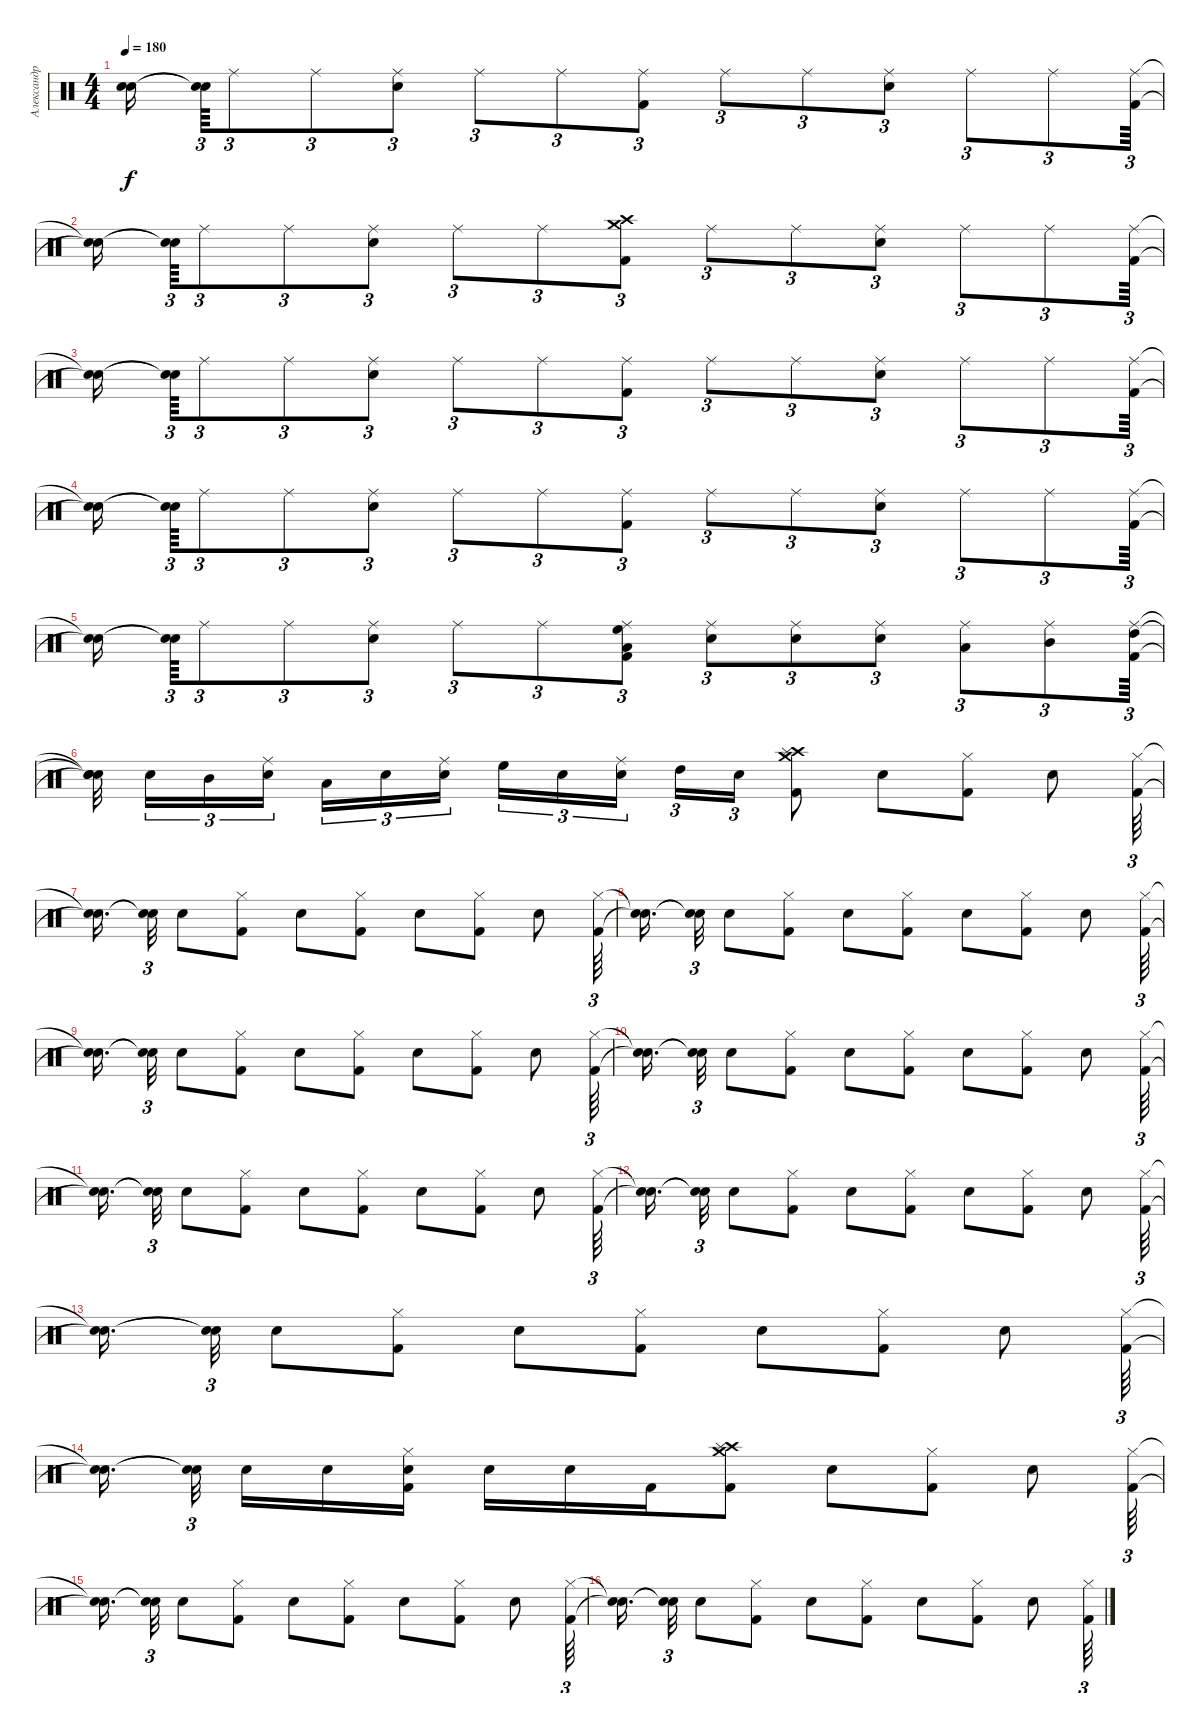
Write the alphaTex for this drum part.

\track ("Александр Карпухин" "Александр ") {instrument percussion}
\staff {score}
\articulation defaults
\ts (4 4)
\tempo 180
\clef neutral
\ks c
("Snare (hit)"{t} "Snare (hit)"{t}).16{dy f beam splitsecondary} ("Snare (hit)"{t} "Snare (hit)"{t}).64{tu (3 2)} "Ride (middle)".8{tu (3 2)} "Ride (middle)".8{tu (3 2)} ("Ride (middle)" "Snare (hit) 2").8{tu (3 2)} "Ride (middle)".8{tu (3 2)} "Ride (middle)".8{tu (3 2)} ("Ride (middle)" "Kick (hit) 2").8{tu (3 2)} "Ride (middle)".8{tu (3 2)} "Ride (middle)".8{tu (3 2)} ("Ride (middle)" "Snare (hit) 2").8{tu (3 2)} "Ride (middle)".8{tu (3 2)} "Ride (middle)".8{tu (3 2)} ("Ride (middle)" "Kick (hit) 2").64{tu (3 2)} |
("Snare (hit)"{t} "Snare (hit)"{t}).16{beam splitsecondary} ("Snare (hit)"{t} "Snare (hit)"{t}).64{tu (3 2)} "Ride (middle)".8{tu (3 2)} "Ride (middle)".8{tu (3 2)} ("Ride (middle)" "Snare (hit) 2").8{tu (3 2)} "Ride (middle)".8{tu (3 2)} "Ride (middle)".8{tu (3 2)} ("Crash high (hit)" "Crash medium (hit)" "Kick (hit) 2").8{tu (3 2)} "Ride (middle)".8{tu (3 2)} "Ride (middle)".8{tu (3 2)} ("Ride (middle)" "Snare (hit) 2").8{tu (3 2)} "Ride (middle)".8{tu (3 2)} "Ride (middle)".8{tu (3 2)} ("Ride (middle)" "Kick (hit) 2").64{tu (3 2)} |
("Snare (hit)"{t} "Snare (hit)"{t}).16{beam splitsecondary} ("Snare (hit)"{t} "Snare (hit)"{t}).64{tu (3 2)} "Ride (middle)".8{tu (3 2)} "Ride (middle)".8{tu (3 2)} ("Ride (middle)" "Snare (hit) 2").8{tu (3 2)} "Ride (middle)".8{tu (3 2)} "Ride (middle)".8{tu (3 2)} ("Ride (middle)" "Kick (hit) 2").8{tu (3 2)} "Ride (middle)".8{tu (3 2)} "Ride (middle)".8{tu (3 2)} ("Ride (middle)" "Snare (hit) 2").8{tu (3 2)} "Ride (middle)".8{tu (3 2)} "Ride (middle)".8{tu (3 2)} ("Ride (middle)" "Kick (hit) 2").64{tu (3 2)} |
("Snare (hit)"{t} "Snare (hit)"{t}).16{beam splitsecondary} ("Snare (hit)"{t} "Snare (hit)"{t}).64{tu (3 2)} "Ride (middle)".8{tu (3 2)} "Ride (middle)".8{tu (3 2)} ("Ride (middle)" "Snare (hit) 2").8{tu (3 2)} "Ride (middle)".8{tu (3 2)} "Ride (middle)".8{tu (3 2)} ("Ride (middle)" "Kick (hit) 2").8{tu (3 2)} "Ride (middle)".8{tu (3 2)} "Ride (middle)".8{tu (3 2)} ("Ride (middle)" "Snare (hit) 2").8{tu (3 2)} "Ride (middle)".8{tu (3 2)} "Ride (middle)".8{tu (3 2)} ("Ride (middle)" "Kick (hit) 2").64{tu (3 2)} |
("Snare (hit)"{t} "Snare (hit)"{t}).16{beam splitsecondary} ("Snare (hit)"{t} "Snare (hit)"{t}).64{tu (3 2)} "Ride (middle)".8{tu (3 2)} "Ride (middle)".8{tu (3 2)} ("Ride (middle)" "Snare (hit) 2").8{tu (3 2)} "Ride (middle)".8{tu (3 2)} "Ride (middle)".8{tu (3 2)} ("Ride (middle)" "High Floor Tom (hit)" "Low Tom (hit)" "Kick (hit) 2").8{tu (3 2)} ("Ride (middle)" "Snare (hit) 2").8{tu (3 2)} ("Ride (middle)" "Snare (hit) 2").8{tu (3 2)} ("Ride (middle)" "Snare (hit) 2").8{tu (3 2)} ("Ride (middle)" "Low Floor Tom (hit)").8{tu (3 2)} ("Ride (middle)" "Mid Tom (hit)").8{tu (3 2)} ("Ride (middle)" "High Tom (hit)" "Kick (hit) 2").64{tu (3 2)} |
("Snare (hit)"{t} "Snare (hit)"{t} "Snare (hit)"{t}).32{beam splitsecondary} "Snare (hit) 2".16{tu (3 2)} "Mid Tom (hit)".16{tu (3 2)} ("Ride (middle)" "Snare (hit) 2").16{tu (3 2) beam splitsecondary} "Low Tom (hit)".16{tu (3 2)} "Snare (hit) 2".16{tu (3 2)} ("Ride (middle)" "Snare (hit) 2").16{tu (3 2)} "High Floor Tom (hit)".16{tu (3 2)} "Snare (hit) 2".16{tu (3 2)} ("Ride (middle)" "Snare (hit) 2").16{tu (3 2) beam splitsecondary} "High Tom (hit)".16{tu (3 2)} "Snare (hit) 2".16{tu (3 2)} ("Crash high (hit)" "Crash medium (hit)" "Splash (hit)" "Kick (hit) 2").8 "Snare (hit) 2".8 ("Hi-Hat (closed)" "Kick (hit) 2").8 "Snare (hit) 2".8 ("Hi-Hat (closed)" "Kick (hit) 2").64{tu (3 2)} |
("Snare (hit)"{t} "Snare (hit)"{t}).16{d beam splitsecondary} ("Snare (hit)"{t} "Snare (hit)"{t}).32{tu (3 2)} "Snare (hit) 2".8 ("Hi-Hat (closed)" "Kick (hit) 2").8 "Snare (hit) 2".8 ("Hi-Hat (closed)" "Kick (hit) 2").8 "Snare (hit) 2".8 ("Hi-Hat (closed)" "Kick (hit) 2").8 "Snare (hit) 2".8 ("Hi-Hat (closed)" "Kick (hit) 2").64{tu (3 2)} |
("Snare (hit)"{t} "Snare (hit)"{t}).16{d beam splitsecondary} ("Snare (hit)"{t} "Snare (hit)"{t}).32{tu (3 2)} "Snare (hit) 2".8 ("Hi-Hat (closed)" "Kick (hit) 2").8 "Snare (hit) 2".8 ("Hi-Hat (closed)" "Kick (hit) 2").8 "Snare (hit) 2".8 ("Hi-Hat (closed)" "Kick (hit) 2").8 "Snare (hit) 2".8 ("Hi-Hat (closed)" "Kick (hit) 2").64{tu (3 2)} |
("Snare (hit)"{t} "Snare (hit)"{t}).16{d beam splitsecondary} ("Snare (hit)"{t} "Snare (hit)"{t}).32{tu (3 2)} "Snare (hit) 2".8 ("Hi-Hat (closed)" "Kick (hit) 2").8 "Snare (hit) 2".8 ("Hi-Hat (closed)" "Kick (hit) 2").8 "Snare (hit) 2".8 ("Hi-Hat (closed)" "Kick (hit) 2").8 "Snare (hit) 2".8 ("Hi-Hat (closed)" "Kick (hit) 2").64{tu (3 2)} |
("Snare (hit)"{t} "Snare (hit)"{t}).16{d beam splitsecondary} ("Snare (hit)"{t} "Snare (hit)"{t}).32{tu (3 2)} "Snare (hit) 2".8 ("Hi-Hat (closed)" "Kick (hit) 2").8 "Snare (hit) 2".8 ("Hi-Hat (closed)" "Kick (hit) 2").8 "Snare (hit) 2".8 ("Hi-Hat (closed)" "Kick (hit) 2").8 "Snare (hit) 2".8 ("Hi-Hat (closed)" "Kick (hit) 2").64{tu (3 2)} |
("Snare (hit)"{t} "Snare (hit)"{t}).16{d beam splitsecondary} ("Snare (hit)"{t} "Snare (hit)"{t}).32{tu (3 2)} "Snare (hit) 2".8 ("Hi-Hat (closed)" "Kick (hit) 2").8 "Snare (hit) 2".8 ("Hi-Hat (closed)" "Kick (hit) 2").8 "Snare (hit) 2".8 ("Hi-Hat (closed)" "Kick (hit) 2").8 "Snare (hit) 2".8 ("Hi-Hat (closed)" "Kick (hit) 2").64{tu (3 2)} |
("Snare (hit)"{t} "Snare (hit)"{t}).16{d beam splitsecondary} ("Snare (hit)"{t} "Snare (hit)"{t}).32{tu (3 2)} "Snare (hit) 2".8 ("Hi-Hat (closed)" "Kick (hit) 2").8 "Snare (hit) 2".8 ("Hi-Hat (closed)" "Kick (hit) 2").8 "Snare (hit) 2".8 ("Hi-Hat (closed)" "Kick (hit) 2").8 "Snare (hit) 2".8 ("Hi-Hat (closed)" "Kick (hit) 2").64{tu (3 2)} |
("Snare (hit)"{t} "Snare (hit)"{t}).16{d beam splitsecondary} ("Snare (hit)"{t} "Snare (hit)"{t}).32{tu (3 2)} "Snare (hit) 2".8 ("Hi-Hat (closed)" "Kick (hit) 2").8 "Snare (hit) 2".8 ("Hi-Hat (closed)" "Kick (hit) 2").8 "Snare (hit) 2".8 ("Hi-Hat (closed)" "Kick (hit) 2").8 "Snare (hit) 2".8 ("Hi-Hat (closed)" "Kick (hit) 2").64{tu (3 2)} |
("Snare (hit)"{t} "Snare (hit)"{t}).16{d beam splitsecondary} ("Snare (hit)"{t} "Snare (hit)"{t}).32{tu (3 2) beam splitsecondary} "Snare (hit) 2".16 "Snare (hit) 2".16 ("Hi-Hat (closed)" "Snare (hit) 2" "Kick (hit) 2").16 "Snare (hit) 2".16 "Snare (hit) 2".16 "Kick (hit) 2".16 ("Crash high (hit)" "Crash medium (hit)" "Splash (hit)" "Kick (hit) 2").8 "Snare (hit) 2".8 ("Hi-Hat (closed)" "Kick (hit) 2").8 "Snare (hit) 2".8 ("Hi-Hat (closed)" "Kick (hit) 2").64{tu (3 2)} |
("Snare (hit)"{t} "Snare (hit)"{t}).16{d beam splitsecondary} ("Snare (hit)"{t} "Snare (hit)"{t}).32{tu (3 2)} "Snare (hit) 2".8 ("Hi-Hat (closed)" "Kick (hit) 2").8 "Snare (hit) 2".8 ("Hi-Hat (closed)" "Kick (hit) 2").8 "Snare (hit) 2".8 ("Hi-Hat (closed)" "Kick (hit) 2").8 "Snare (hit) 2".8 ("Hi-Hat (closed)" "Kick (hit) 2").64{tu (3 2)} |
("Snare (hit)"{t} "Snare (hit)"{t}).16{d beam splitsecondary} ("Snare (hit)"{t} "Snare (hit)"{t}).32{tu (3 2)} "Snare (hit) 2".8 ("Hi-Hat (closed)" "Kick (hit) 2").8 "Snare (hit) 2".8 ("Hi-Hat (closed)" "Kick (hit) 2").8 "Snare (hit) 2".8 ("Hi-Hat (closed)" "Kick (hit) 2").8 "Snare (hit) 2".8 ("Hi-Hat (closed)" "Kick (hit) 2").64{tu (3 2)}
